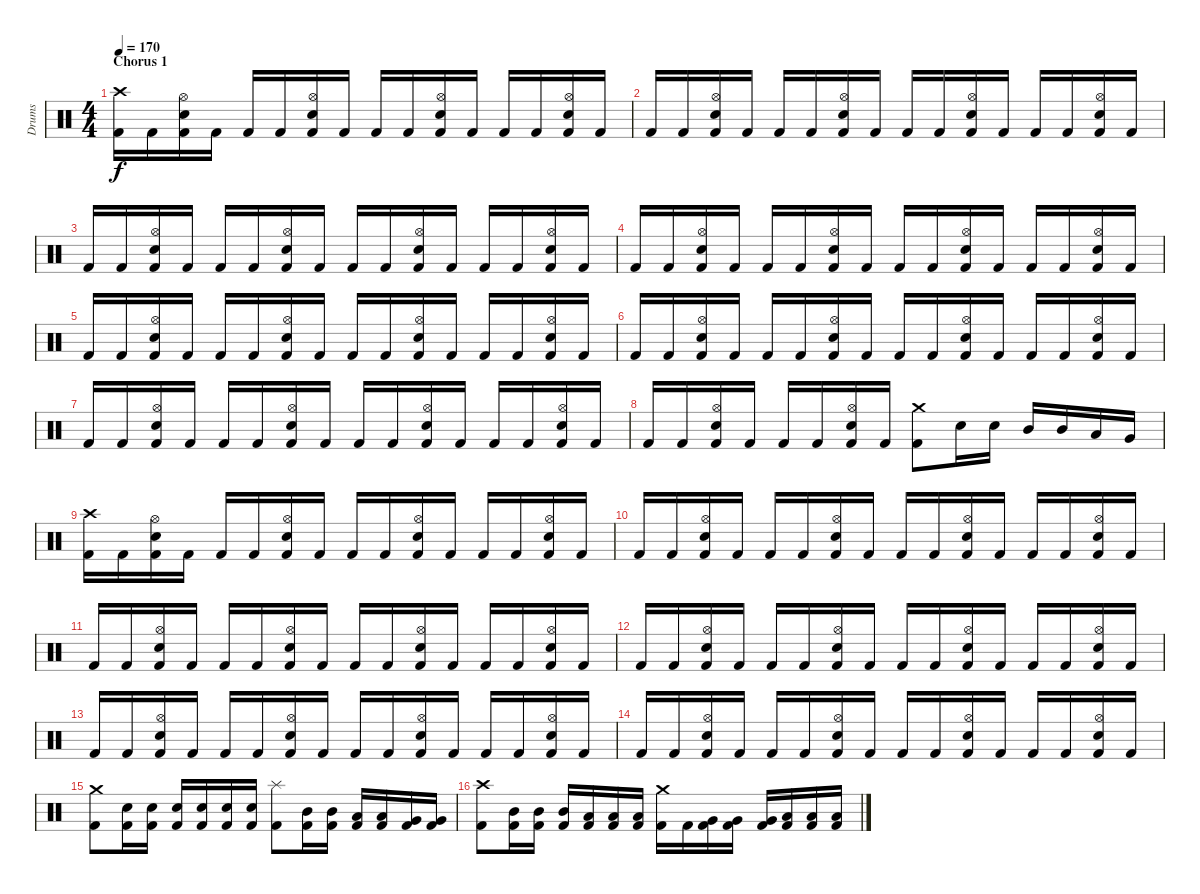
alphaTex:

\track ("Drums" "Drums") {instrument percussion}
\staff {score}
\articulation defaults
\ts (4 4)
\section ("" "Chorus 1")
\tempo 170
\clef neutral
\ks c
("Crash high (hit)" "Kick (hit) 2").16{dy f} "Kick (hit) 2".16 ("Hi-Hat (open)" "Snare (hit) 2" "Kick (hit) 2").16 "Kick (hit) 2".16 "Kick (hit) 2".16 "Kick (hit) 2".16 ("Hi-Hat (open)" "Snare (hit) 2" "Kick (hit) 2").16 "Kick (hit) 2".16 "Kick (hit) 2".16 "Kick (hit) 2".16 ("Hi-Hat (open)" "Snare (hit) 2" "Kick (hit) 2").16 "Kick (hit) 2".16 "Kick (hit) 2".16 "Kick (hit) 2".16 ("Hi-Hat (open)" "Snare (hit) 2" "Kick (hit) 2").16 "Kick (hit) 2".16 |
"Kick (hit) 2".16 "Kick (hit) 2".16 ("Hi-Hat (open)" "Snare (hit) 2" "Kick (hit) 2").16 "Kick (hit) 2".16 "Kick (hit) 2".16 "Kick (hit) 2".16 ("Hi-Hat (open)" "Snare (hit) 2" "Kick (hit) 2").16 "Kick (hit) 2".16 "Kick (hit) 2".16 "Kick (hit) 2".16 ("Hi-Hat (open)" "Snare (hit) 2" "Kick (hit) 2").16 "Kick (hit) 2".16 "Kick (hit) 2".16 "Kick (hit) 2".16 ("Hi-Hat (open)" "Snare (hit) 2" "Kick (hit) 2").16 "Kick (hit) 2".16 |
"Kick (hit) 2".16 "Kick (hit) 2".16 ("Hi-Hat (open)" "Snare (hit) 2" "Kick (hit) 2").16 "Kick (hit) 2".16 "Kick (hit) 2".16 "Kick (hit) 2".16 ("Hi-Hat (open)" "Snare (hit) 2" "Kick (hit) 2").16 "Kick (hit) 2".16 "Kick (hit) 2".16 "Kick (hit) 2".16 ("Hi-Hat (open)" "Snare (hit) 2" "Kick (hit) 2").16 "Kick (hit) 2".16 "Kick (hit) 2".16 "Kick (hit) 2".16 ("Hi-Hat (open)" "Snare (hit) 2" "Kick (hit) 2").16 "Kick (hit) 2".16 |
"Kick (hit) 2".16 "Kick (hit) 2".16 ("Hi-Hat (open)" "Snare (hit) 2" "Kick (hit) 2").16 "Kick (hit) 2".16 "Kick (hit) 2".16 "Kick (hit) 2".16 ("Hi-Hat (open)" "Snare (hit) 2" "Kick (hit) 2").16 "Kick (hit) 2".16 "Kick (hit) 2".16 "Kick (hit) 2".16 ("Hi-Hat (open)" "Snare (hit) 2" "Kick (hit) 2").16 "Kick (hit) 2".16 "Kick (hit) 2".16 "Kick (hit) 2".16 ("Hi-Hat (open)" "Snare (hit) 2" "Kick (hit) 2").16 "Kick (hit) 2".16 |
"Kick (hit) 2".16 "Kick (hit) 2".16 ("Hi-Hat (open)" "Snare (hit) 2" "Kick (hit) 2").16 "Kick (hit) 2".16 "Kick (hit) 2".16 "Kick (hit) 2".16 ("Hi-Hat (open)" "Snare (hit) 2" "Kick (hit) 2").16 "Kick (hit) 2".16 "Kick (hit) 2".16 "Kick (hit) 2".16 ("Hi-Hat (open)" "Snare (hit) 2" "Kick (hit) 2").16 "Kick (hit) 2".16 "Kick (hit) 2".16 "Kick (hit) 2".16 ("Hi-Hat (open)" "Snare (hit) 2" "Kick (hit) 2").16 "Kick (hit) 2".16 |
"Kick (hit) 2".16 "Kick (hit) 2".16 ("Hi-Hat (open)" "Snare (hit) 2" "Kick (hit) 2").16 "Kick (hit) 2".16 "Kick (hit) 2".16 "Kick (hit) 2".16 ("Hi-Hat (open)" "Snare (hit) 2" "Kick (hit) 2").16 "Kick (hit) 2".16 "Kick (hit) 2".16 "Kick (hit) 2".16 ("Hi-Hat (open)" "Snare (hit) 2" "Kick (hit) 2").16 "Kick (hit) 2".16 "Kick (hit) 2".16 "Kick (hit) 2".16 ("Hi-Hat (open)" "Snare (hit) 2" "Kick (hit) 2").16 "Kick (hit) 2".16 |
"Kick (hit) 2".16 "Kick (hit) 2".16 ("Hi-Hat (open)" "Snare (hit) 2" "Kick (hit) 2").16 "Kick (hit) 2".16 "Kick (hit) 2".16 "Kick (hit) 2".16 ("Hi-Hat (open)" "Snare (hit) 2" "Kick (hit) 2").16 "Kick (hit) 2".16 "Kick (hit) 2".16 "Kick (hit) 2".16 ("Hi-Hat (open)" "Snare (hit) 2" "Kick (hit) 2").16 "Kick (hit) 2".16 "Kick (hit) 2".16 "Kick (hit) 2".16 ("Hi-Hat (open)" "Snare (hit) 2" "Kick (hit) 2").16 "Kick (hit) 2".16 |
"Kick (hit) 2".16 "Kick (hit) 2".16 ("Hi-Hat (open)" "Snare (hit) 2" "Kick (hit) 2").16 "Kick (hit) 2".16 "Kick (hit) 2".16 "Kick (hit) 2".16 ("Hi-Hat (open)" "Snare (hit) 2" "Kick (hit) 2").16 "Kick (hit) 2".16 ("Crash medium (hit)" "Kick (hit) 2").8 "Snare (hit) 2".16 "Snare (hit) 2".16 "Mid Tom (hit)".16 "Mid Tom (hit)".16 "Low Tom (hit)".16 "Very Low Tom (hit)".16 |
("Crash high (hit)" "Kick (hit) 2").16 "Kick (hit) 2".16 ("Hi-Hat (open)" "Snare (hit) 2" "Kick (hit) 2").16 "Kick (hit) 2".16 "Kick (hit) 2".16 "Kick (hit) 2".16 ("Hi-Hat (open)" "Snare (hit) 2" "Kick (hit) 2").16 "Kick (hit) 2".16 "Kick (hit) 2".16 "Kick (hit) 2".16 ("Hi-Hat (open)" "Snare (hit) 2" "Kick (hit) 2").16 "Kick (hit) 2".16 "Kick (hit) 2".16 "Kick (hit) 2".16 ("Hi-Hat (open)" "Snare (hit) 2" "Kick (hit) 2").16 "Kick (hit) 2".16 |
"Kick (hit) 2".16 "Kick (hit) 2".16 ("Hi-Hat (open)" "Snare (hit) 2" "Kick (hit) 2").16 "Kick (hit) 2".16 "Kick (hit) 2".16 "Kick (hit) 2".16 ("Hi-Hat (open)" "Snare (hit) 2" "Kick (hit) 2").16 "Kick (hit) 2".16 "Kick (hit) 2".16 "Kick (hit) 2".16 ("Hi-Hat (open)" "Snare (hit) 2" "Kick (hit) 2").16 "Kick (hit) 2".16 "Kick (hit) 2".16 "Kick (hit) 2".16 ("Hi-Hat (open)" "Snare (hit) 2" "Kick (hit) 2").16 "Kick (hit) 2".16 |
"Kick (hit) 2".16 "Kick (hit) 2".16 ("Hi-Hat (open)" "Snare (hit) 2" "Kick (hit) 2").16 "Kick (hit) 2".16 "Kick (hit) 2".16 "Kick (hit) 2".16 ("Hi-Hat (open)" "Snare (hit) 2" "Kick (hit) 2").16 "Kick (hit) 2".16 "Kick (hit) 2".16 "Kick (hit) 2".16 ("Hi-Hat (open)" "Snare (hit) 2" "Kick (hit) 2").16 "Kick (hit) 2".16 "Kick (hit) 2".16 "Kick (hit) 2".16 ("Hi-Hat (open)" "Snare (hit) 2" "Kick (hit) 2").16 "Kick (hit) 2".16 |
"Kick (hit) 2".16 "Kick (hit) 2".16 ("Hi-Hat (open)" "Snare (hit) 2" "Kick (hit) 2").16 "Kick (hit) 2".16 "Kick (hit) 2".16 "Kick (hit) 2".16 ("Hi-Hat (open)" "Snare (hit) 2" "Kick (hit) 2").16 "Kick (hit) 2".16 "Kick (hit) 2".16 "Kick (hit) 2".16 ("Hi-Hat (open)" "Snare (hit) 2" "Kick (hit) 2").16 "Kick (hit) 2".16 "Kick (hit) 2".16 "Kick (hit) 2".16 ("Hi-Hat (open)" "Snare (hit) 2" "Kick (hit) 2").16 "Kick (hit) 2".16 |
"Kick (hit) 2".16 "Kick (hit) 2".16 ("Hi-Hat (open)" "Snare (hit) 2" "Kick (hit) 2").16 "Kick (hit) 2".16 "Kick (hit) 2".16 "Kick (hit) 2".16 ("Hi-Hat (open)" "Snare (hit) 2" "Kick (hit) 2").16 "Kick (hit) 2".16 "Kick (hit) 2".16 "Kick (hit) 2".16 ("Hi-Hat (open)" "Snare (hit) 2" "Kick (hit) 2").16 "Kick (hit) 2".16 "Kick (hit) 2".16 "Kick (hit) 2".16 ("Hi-Hat (open)" "Snare (hit) 2" "Kick (hit) 2").16 "Kick (hit) 2".16 |
"Kick (hit) 2".16 "Kick (hit) 2".16 ("Hi-Hat (open)" "Snare (hit) 2" "Kick (hit) 2").16 "Kick (hit) 2".16 "Kick (hit) 2".16 "Kick (hit) 2".16 ("Hi-Hat (open)" "Snare (hit) 2" "Kick (hit) 2").16 "Kick (hit) 2".16 "Kick (hit) 2".16 "Kick (hit) 2".16 ("Hi-Hat (open)" "Snare (hit) 2" "Kick (hit) 2").16 "Kick (hit) 2".16 "Kick (hit) 2".16 "Kick (hit) 2".16 ("Hi-Hat (open)" "Snare (hit) 2" "Kick (hit) 2").16 "Kick (hit) 2".16 |
("Crash medium (hit)" "Kick (hit) 2").8 ("Snare (hit) 2" "Kick (hit) 2").16 ("Snare (hit) 2" "Kick (hit) 2").16 ("Snare (hit) 2" "Kick (hit) 2").16 ("Snare (hit) 2" "Kick (hit) 2").16 ("Snare (hit) 2" "Kick (hit) 2").16 ("Snare (hit) 2" "Kick (hit) 2").16 ("Splash (hit)" "Kick (hit) 2").8 ("Mid Tom (hit)" "Kick (hit) 2").16 ("Mid Tom (hit)" "Kick (hit) 2").16 ("Low Tom (hit)" "Kick (hit) 2").16 ("Low Tom (hit)" "Kick (hit) 2").16 ("Very Low Tom (hit)" "Kick (hit) 2").16 ("Very Low Tom (hit)" "Kick (hit) 2").16 |
("Crash high (hit)" "Kick (hit) 2").8 ("Mid Tom (hit)" "Kick (hit) 2").16 ("Mid Tom (hit)" "Kick (hit) 2").16 ("Mid Tom (hit)" "Kick (hit) 2").16 ("Low Tom (hit)" "Kick (hit) 2").16 ("Low Tom (hit)" "Kick (hit) 2").16 ("Low Tom (hit)" "Kick (hit) 2").16 ("Crash medium (hit)" "Kick (hit) 2").16 "Kick (hit) 2".16 ("Very Low Tom (hit)" "Kick (hit) 2").16 ("Very Low Tom (hit)" "Kick (hit) 2").16 ("Very Low Tom (hit)" "Kick (hit) 2").16 ("Low Floor Tom (hit)" "Kick (hit) 2").16 ("Low Floor Tom (hit)" "Kick (hit) 2").16 ("Low Floor Tom (hit)" "Kick (hit) 2").16
